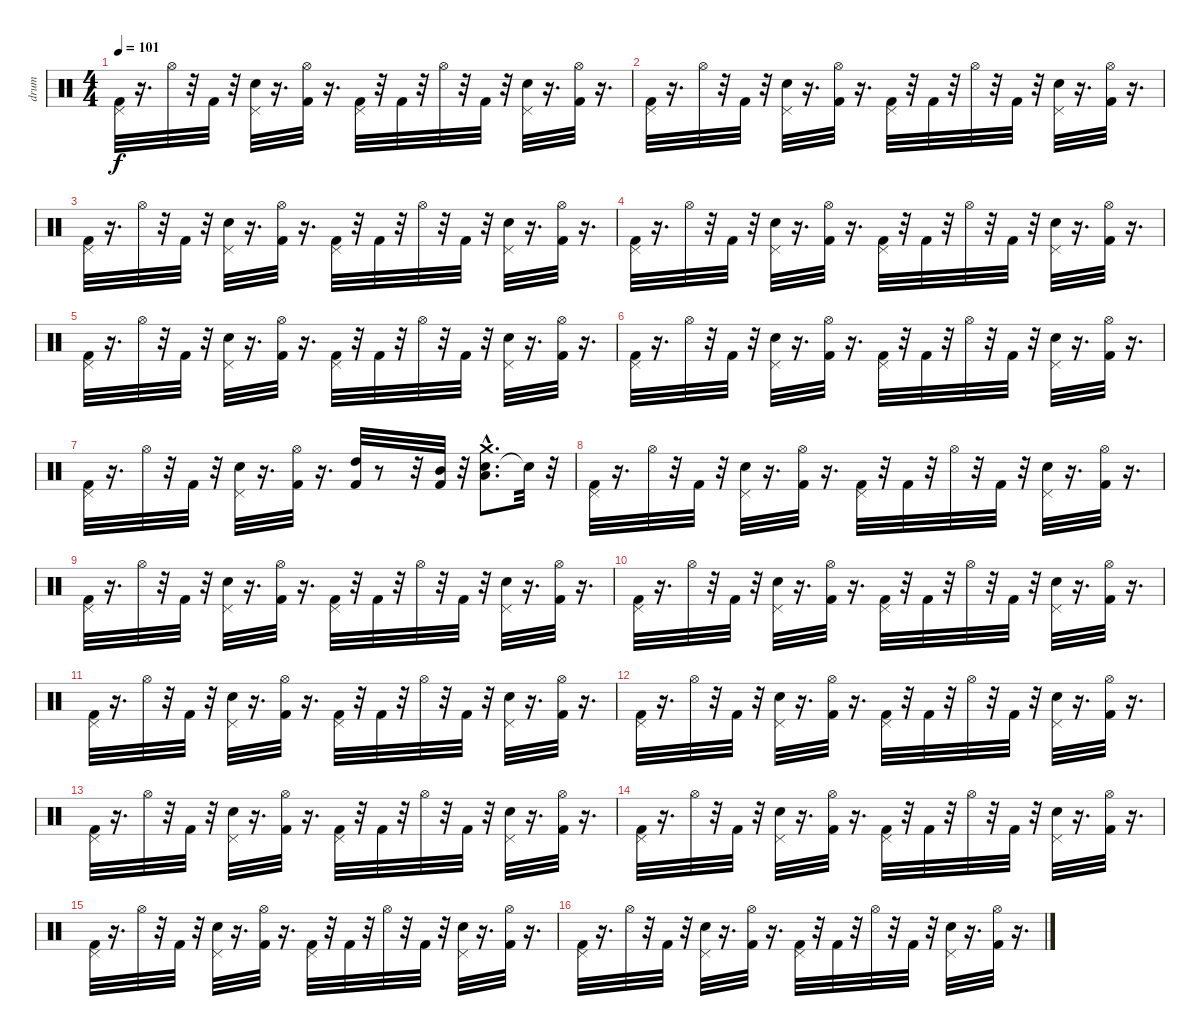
\track ("drum" "drum") {instrument percussion}
\staff {score}
\articulation defaults
\ts (4 4)
\tempo 101
\clef neutral
\ks c
("Kick (hit) 2" "Pedal Hi-Hat (hit)").32{dy f} r.16{d} "Hi-Hat (open)".32 r.32 "Kick (hit) 2".32 r.32 ("Electric Snare (hit)" "Pedal Hi-Hat (hit)").32 r.16{d} ("Kick (hit) 2" "Hi-Hat (open)").32 r.16{d} ("Kick (hit) 2" "Pedal Hi-Hat (hit)").32 r.32 "Kick (hit) 2".32 r.32 "Hi-Hat (open)".32 r.32 "Kick (hit) 2".32 r.32 ("Electric Snare (hit)" "Pedal Hi-Hat (hit)").32 r.16{d} ("Kick (hit) 2" "Hi-Hat (open)").32 r.16{d} |
("Kick (hit) 2" "Pedal Hi-Hat (hit)").32 r.16{d} "Hi-Hat (open)".32 r.32 "Kick (hit) 2".32 r.32 ("Electric Snare (hit)" "Pedal Hi-Hat (hit)").32 r.16{d} ("Kick (hit) 2" "Hi-Hat (open)").32 r.16{d} ("Kick (hit) 2" "Pedal Hi-Hat (hit)").32 r.32 "Kick (hit) 2".32 r.32 "Hi-Hat (open)".32 r.32 "Kick (hit) 2".32 r.32 ("Electric Snare (hit)" "Pedal Hi-Hat (hit)").32 r.16{d} ("Kick (hit) 2" "Hi-Hat (open)").32 r.16{d} |
("Kick (hit) 2" "Pedal Hi-Hat (hit)").32 r.16{d} "Hi-Hat (open)".32 r.32 "Kick (hit) 2".32 r.32 ("Electric Snare (hit)" "Pedal Hi-Hat (hit)").32 r.16{d} ("Kick (hit) 2" "Hi-Hat (open)").32 r.16{d} ("Kick (hit) 2" "Pedal Hi-Hat (hit)").32 r.32 "Kick (hit) 2".32 r.32 "Hi-Hat (open)".32 r.32 "Kick (hit) 2".32 r.32 ("Electric Snare (hit)" "Pedal Hi-Hat (hit)").32 r.16{d} ("Kick (hit) 2" "Hi-Hat (open)").32 r.16{d} |
("Kick (hit) 2" "Pedal Hi-Hat (hit)").32 r.16{d} "Hi-Hat (open)".32 r.32 "Kick (hit) 2".32 r.32 ("Electric Snare (hit)" "Pedal Hi-Hat (hit)").32 r.16{d} ("Kick (hit) 2" "Hi-Hat (open)").32 r.16{d} ("Kick (hit) 2" "Pedal Hi-Hat (hit)").32 r.32 "Kick (hit) 2".32 r.32 "Hi-Hat (open)".32 r.32 "Kick (hit) 2".32 r.32 ("Electric Snare (hit)" "Pedal Hi-Hat (hit)").32 r.16{d} ("Kick (hit) 2" "Hi-Hat (open)").32 r.16{d} |
("Kick (hit) 2" "Pedal Hi-Hat (hit)").32 r.16{d} "Hi-Hat (open)".32 r.32 "Kick (hit) 2".32 r.32 ("Electric Snare (hit)" "Pedal Hi-Hat (hit)").32 r.16{d} ("Kick (hit) 2" "Hi-Hat (open)").32 r.16{d} ("Kick (hit) 2" "Pedal Hi-Hat (hit)").32 r.32 "Kick (hit) 2".32 r.32 "Hi-Hat (open)".32 r.32 "Kick (hit) 2".32 r.32 ("Electric Snare (hit)" "Pedal Hi-Hat (hit)").32 r.16{d} ("Kick (hit) 2" "Hi-Hat (open)").32 r.16{d} |
("Kick (hit) 2" "Pedal Hi-Hat (hit)").32 r.16{d} "Hi-Hat (open)".32 r.32 "Kick (hit) 2".32 r.32 ("Electric Snare (hit)" "Pedal Hi-Hat (hit)").32 r.16{d} ("Kick (hit) 2" "Hi-Hat (open)").32 r.16{d} ("Kick (hit) 2" "Pedal Hi-Hat (hit)").32 r.32 "Kick (hit) 2".32 r.32 "Hi-Hat (open)".32 r.32 "Kick (hit) 2".32 r.32 ("Electric Snare (hit)" "Pedal Hi-Hat (hit)").32 r.16{d} ("Kick (hit) 2" "Hi-Hat (open)").32 r.16{d} |
("Kick (hit) 2" "Pedal Hi-Hat (hit)").32 r.16{d} "Hi-Hat (open)".32 r.32 "Kick (hit) 2".32 r.32 ("Electric Snare (hit)" "Pedal Hi-Hat (hit)").32 r.16{d} ("Kick (hit) 2" "Hi-Hat (open)").32 r.16{d} ("Kick (hit) 2" "High Tom (hit)").32 r.8 r.32 ("Kick (hit) 2" "Mid Tom (hit)").32 r.32 ("Electric Snare (hit)" "Low Tom (hit)" "Crash medium (hit)"{hac}).8{d} "Snare (hit)"{t}.32 r.32 |
("Kick (hit) 2" "Pedal Hi-Hat (hit)").32 r.16{d} "Hi-Hat (open)".32 r.32 "Kick (hit) 2".32 r.32 ("Electric Snare (hit)" "Pedal Hi-Hat (hit)").32 r.16{d} ("Kick (hit) 2" "Hi-Hat (open)").32 r.16{d} ("Kick (hit) 2" "Pedal Hi-Hat (hit)").32 r.32 "Kick (hit) 2".32 r.32 "Hi-Hat (open)".32 r.32 "Kick (hit) 2".32 r.32 ("Electric Snare (hit)" "Pedal Hi-Hat (hit)").32 r.16{d} ("Kick (hit) 2" "Hi-Hat (open)").32 r.16{d} |
("Kick (hit) 2" "Pedal Hi-Hat (hit)").32 r.16{d} "Hi-Hat (open)".32 r.32 "Kick (hit) 2".32 r.32 ("Electric Snare (hit)" "Pedal Hi-Hat (hit)").32 r.16{d} ("Kick (hit) 2" "Hi-Hat (open)").32 r.16{d} ("Kick (hit) 2" "Pedal Hi-Hat (hit)").32 r.32 "Kick (hit) 2".32 r.32 "Hi-Hat (open)".32 r.32 "Kick (hit) 2".32 r.32 ("Electric Snare (hit)" "Pedal Hi-Hat (hit)").32 r.16{d} ("Kick (hit) 2" "Hi-Hat (open)").32 r.16{d} |
("Kick (hit) 2" "Pedal Hi-Hat (hit)").32 r.16{d} "Hi-Hat (open)".32 r.32 "Kick (hit) 2".32 r.32 ("Electric Snare (hit)" "Pedal Hi-Hat (hit)").32 r.16{d} ("Kick (hit) 2" "Hi-Hat (open)").32 r.16{d} ("Kick (hit) 2" "Pedal Hi-Hat (hit)").32 r.32 "Kick (hit) 2".32 r.32 "Hi-Hat (open)".32 r.32 "Kick (hit) 2".32 r.32 ("Electric Snare (hit)" "Pedal Hi-Hat (hit)").32 r.16{d} ("Kick (hit) 2" "Hi-Hat (open)").32 r.16{d} |
("Kick (hit) 2" "Pedal Hi-Hat (hit)").32 r.16{d} "Hi-Hat (open)".32 r.32 "Kick (hit) 2".32 r.32 ("Electric Snare (hit)" "Pedal Hi-Hat (hit)").32 r.16{d} ("Kick (hit) 2" "Hi-Hat (open)").32 r.16{d} ("Kick (hit) 2" "Pedal Hi-Hat (hit)").32 r.32 "Kick (hit) 2".32 r.32 "Hi-Hat (open)".32 r.32 "Kick (hit) 2".32 r.32 ("Electric Snare (hit)" "Pedal Hi-Hat (hit)").32 r.16{d} ("Kick (hit) 2" "Hi-Hat (open)").32 r.16{d} |
("Kick (hit) 2" "Pedal Hi-Hat (hit)").32 r.16{d} "Hi-Hat (open)".32 r.32 "Kick (hit) 2".32 r.32 ("Electric Snare (hit)" "Pedal Hi-Hat (hit)").32 r.16{d} ("Kick (hit) 2" "Hi-Hat (open)").32 r.16{d} ("Kick (hit) 2" "Pedal Hi-Hat (hit)").32 r.32 "Kick (hit) 2".32 r.32 "Hi-Hat (open)".32 r.32 "Kick (hit) 2".32 r.32 ("Electric Snare (hit)" "Pedal Hi-Hat (hit)").32 r.16{d} ("Kick (hit) 2" "Hi-Hat (open)").32 r.16{d} |
("Kick (hit) 2" "Pedal Hi-Hat (hit)").32 r.16{d} "Hi-Hat (open)".32 r.32 "Kick (hit) 2".32 r.32 ("Electric Snare (hit)" "Pedal Hi-Hat (hit)").32 r.16{d} ("Kick (hit) 2" "Hi-Hat (open)").32 r.16{d} ("Kick (hit) 2" "Pedal Hi-Hat (hit)").32 r.32 "Kick (hit) 2".32 r.32 "Hi-Hat (open)".32 r.32 "Kick (hit) 2".32 r.32 ("Electric Snare (hit)" "Pedal Hi-Hat (hit)").32 r.16{d} ("Kick (hit) 2" "Hi-Hat (open)").32 r.16{d} |
("Kick (hit) 2" "Pedal Hi-Hat (hit)").32 r.16{d} "Hi-Hat (open)".32 r.32 "Kick (hit) 2".32 r.32 ("Electric Snare (hit)" "Pedal Hi-Hat (hit)").32 r.16{d} ("Kick (hit) 2" "Hi-Hat (open)").32 r.16{d} ("Kick (hit) 2" "Pedal Hi-Hat (hit)").32 r.32 "Kick (hit) 2".32 r.32 "Hi-Hat (open)".32 r.32 "Kick (hit) 2".32 r.32 ("Electric Snare (hit)" "Pedal Hi-Hat (hit)").32 r.16{d} ("Kick (hit) 2" "Hi-Hat (open)").32 r.16{d} |
("Kick (hit) 2" "Pedal Hi-Hat (hit)").32 r.16{d} "Hi-Hat (open)".32 r.32 "Kick (hit) 2".32 r.32 ("Electric Snare (hit)" "Pedal Hi-Hat (hit)").32 r.16{d} ("Kick (hit) 2" "Hi-Hat (open)").32 r.16{d} ("Kick (hit) 2" "Pedal Hi-Hat (hit)").32 r.32 "Kick (hit) 2".32 r.32 "Hi-Hat (open)".32 r.32 "Kick (hit) 2".32 r.32 ("Electric Snare (hit)" "Pedal Hi-Hat (hit)").32 r.16{d} ("Kick (hit) 2" "Hi-Hat (open)").32 r.16{d} |
("Kick (hit) 2" "Pedal Hi-Hat (hit)").32 r.16{d} "Hi-Hat (open)".32 r.32 "Kick (hit) 2".32 r.32 ("Electric Snare (hit)" "Pedal Hi-Hat (hit)").32 r.16{d} ("Kick (hit) 2" "Hi-Hat (open)").32 r.16{d} ("Kick (hit) 2" "Pedal Hi-Hat (hit)").32 r.32 "Kick (hit) 2".32 r.32 "Hi-Hat (open)".32 r.32 "Kick (hit) 2".32 r.32 ("Electric Snare (hit)" "Pedal Hi-Hat (hit)").32 r.16{d} ("Kick (hit) 2" "Hi-Hat (open)").32 r.16{d}
